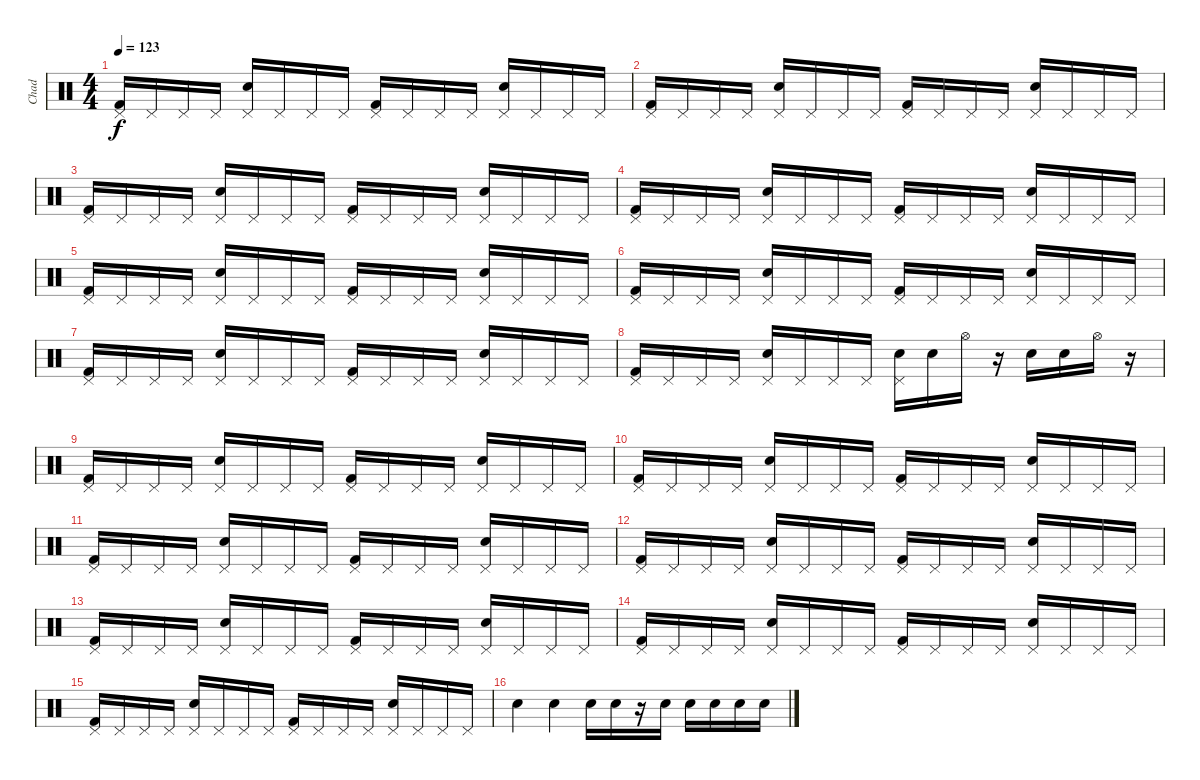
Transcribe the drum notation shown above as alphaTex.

\track ("Chad" "Chad") {instrument percussion}
\staff {score}
\articulation defaults
\ts (4 4)
\tempo 123
\clef neutral
\ks c
("Pedal Hi-Hat (hit)" "Kick (hit) 2").16{dy f} "Pedal Hi-Hat (hit)".16 "Pedal Hi-Hat (hit)".16 "Pedal Hi-Hat (hit)".16 ("Pedal Hi-Hat (hit)" "Electric Snare (hit)").16 "Pedal Hi-Hat (hit)".16 "Pedal Hi-Hat (hit)".16 "Pedal Hi-Hat (hit)".16 ("Pedal Hi-Hat (hit)" "Kick (hit) 2").16 "Pedal Hi-Hat (hit)".16 "Pedal Hi-Hat (hit)".16 "Pedal Hi-Hat (hit)".16 ("Pedal Hi-Hat (hit)" "Electric Snare (hit)").16 "Pedal Hi-Hat (hit)".16 "Pedal Hi-Hat (hit)".16 "Pedal Hi-Hat (hit)".16 |
("Pedal Hi-Hat (hit)" "Kick (hit) 2").16 "Pedal Hi-Hat (hit)".16 "Pedal Hi-Hat (hit)".16 "Pedal Hi-Hat (hit)".16 ("Pedal Hi-Hat (hit)" "Electric Snare (hit)").16 "Pedal Hi-Hat (hit)".16 "Pedal Hi-Hat (hit)".16 "Pedal Hi-Hat (hit)".16 ("Pedal Hi-Hat (hit)" "Kick (hit) 2").16 "Pedal Hi-Hat (hit)".16 "Pedal Hi-Hat (hit)".16 "Pedal Hi-Hat (hit)".16 ("Pedal Hi-Hat (hit)" "Electric Snare (hit)").16 "Pedal Hi-Hat (hit)".16 "Pedal Hi-Hat (hit)".16 "Pedal Hi-Hat (hit)".16 |
("Pedal Hi-Hat (hit)" "Kick (hit) 2").16 "Pedal Hi-Hat (hit)".16 "Pedal Hi-Hat (hit)".16 "Pedal Hi-Hat (hit)".16 ("Pedal Hi-Hat (hit)" "Electric Snare (hit)").16 "Pedal Hi-Hat (hit)".16 "Pedal Hi-Hat (hit)".16 "Pedal Hi-Hat (hit)".16 ("Pedal Hi-Hat (hit)" "Kick (hit) 2").16 "Pedal Hi-Hat (hit)".16 "Pedal Hi-Hat (hit)".16 "Pedal Hi-Hat (hit)".16 ("Pedal Hi-Hat (hit)" "Electric Snare (hit)").16 "Pedal Hi-Hat (hit)".16 "Pedal Hi-Hat (hit)".16 "Pedal Hi-Hat (hit)".16 |
("Pedal Hi-Hat (hit)" "Kick (hit) 2").16 "Pedal Hi-Hat (hit)".16 "Pedal Hi-Hat (hit)".16 "Pedal Hi-Hat (hit)".16 ("Pedal Hi-Hat (hit)" "Electric Snare (hit)").16 "Pedal Hi-Hat (hit)".16 "Pedal Hi-Hat (hit)".16 "Pedal Hi-Hat (hit)".16 ("Pedal Hi-Hat (hit)" "Kick (hit) 2").16 "Pedal Hi-Hat (hit)".16 "Pedal Hi-Hat (hit)".16 "Pedal Hi-Hat (hit)".16 ("Pedal Hi-Hat (hit)" "Electric Snare (hit)").16 "Pedal Hi-Hat (hit)".16 "Pedal Hi-Hat (hit)".16 "Pedal Hi-Hat (hit)".16 |
("Pedal Hi-Hat (hit)" "Kick (hit) 2").16 "Pedal Hi-Hat (hit)".16 "Pedal Hi-Hat (hit)".16 "Pedal Hi-Hat (hit)".16 ("Pedal Hi-Hat (hit)" "Electric Snare (hit)").16 "Pedal Hi-Hat (hit)".16 "Pedal Hi-Hat (hit)".16 "Pedal Hi-Hat (hit)".16 ("Pedal Hi-Hat (hit)" "Kick (hit) 2").16 "Pedal Hi-Hat (hit)".16 "Pedal Hi-Hat (hit)".16 "Pedal Hi-Hat (hit)".16 ("Pedal Hi-Hat (hit)" "Electric Snare (hit)").16 "Pedal Hi-Hat (hit)".16 "Pedal Hi-Hat (hit)".16 "Pedal Hi-Hat (hit)".16 |
("Pedal Hi-Hat (hit)" "Kick (hit) 2").16 "Pedal Hi-Hat (hit)".16 "Pedal Hi-Hat (hit)".16 "Pedal Hi-Hat (hit)".16 ("Pedal Hi-Hat (hit)" "Electric Snare (hit)").16 "Pedal Hi-Hat (hit)".16 "Pedal Hi-Hat (hit)".16 "Pedal Hi-Hat (hit)".16 ("Pedal Hi-Hat (hit)" "Kick (hit) 2").16 "Pedal Hi-Hat (hit)".16 "Pedal Hi-Hat (hit)".16 "Pedal Hi-Hat (hit)".16 ("Pedal Hi-Hat (hit)" "Electric Snare (hit)").16 "Pedal Hi-Hat (hit)".16 "Pedal Hi-Hat (hit)".16 "Pedal Hi-Hat (hit)".16 |
("Pedal Hi-Hat (hit)" "Kick (hit) 2").16 "Pedal Hi-Hat (hit)".16 "Pedal Hi-Hat (hit)".16 "Pedal Hi-Hat (hit)".16 ("Pedal Hi-Hat (hit)" "Electric Snare (hit)").16 "Pedal Hi-Hat (hit)".16 "Pedal Hi-Hat (hit)".16 "Pedal Hi-Hat (hit)".16 ("Pedal Hi-Hat (hit)" "Kick (hit) 2").16 "Pedal Hi-Hat (hit)".16 "Pedal Hi-Hat (hit)".16 "Pedal Hi-Hat (hit)".16 ("Pedal Hi-Hat (hit)" "Electric Snare (hit)").16 "Pedal Hi-Hat (hit)".16 "Pedal Hi-Hat (hit)".16 "Pedal Hi-Hat (hit)".16 |
("Pedal Hi-Hat (hit)" "Kick (hit) 2").16 "Pedal Hi-Hat (hit)".16 "Pedal Hi-Hat (hit)".16 "Pedal Hi-Hat (hit)".16 ("Pedal Hi-Hat (hit)" "Electric Snare (hit)").16 "Pedal Hi-Hat (hit)".16 "Pedal Hi-Hat (hit)".16 "Pedal Hi-Hat (hit)".16 ("Pedal Hi-Hat (hit)" "Electric Snare (hit)").16 "Electric Snare (hit)".16 "Hi-Hat (open)".16 r.16 "Electric Snare (hit)".16 "Electric Snare (hit)".16 "Hi-Hat (open)".16 r.16 |
("Pedal Hi-Hat (hit)" "Kick (hit) 2").16 "Pedal Hi-Hat (hit)".16 "Pedal Hi-Hat (hit)".16 "Pedal Hi-Hat (hit)".16 ("Pedal Hi-Hat (hit)" "Electric Snare (hit)").16 "Pedal Hi-Hat (hit)".16 "Pedal Hi-Hat (hit)".16 "Pedal Hi-Hat (hit)".16 ("Pedal Hi-Hat (hit)" "Kick (hit) 2").16 "Pedal Hi-Hat (hit)".16 "Pedal Hi-Hat (hit)".16 "Pedal Hi-Hat (hit)".16 ("Pedal Hi-Hat (hit)" "Electric Snare (hit)").16 "Pedal Hi-Hat (hit)".16 "Pedal Hi-Hat (hit)".16 "Pedal Hi-Hat (hit)".16 |
("Pedal Hi-Hat (hit)" "Kick (hit) 2").16 "Pedal Hi-Hat (hit)".16 "Pedal Hi-Hat (hit)".16 "Pedal Hi-Hat (hit)".16 ("Pedal Hi-Hat (hit)" "Electric Snare (hit)").16 "Pedal Hi-Hat (hit)".16 "Pedal Hi-Hat (hit)".16 "Pedal Hi-Hat (hit)".16 ("Pedal Hi-Hat (hit)" "Kick (hit) 2").16 "Pedal Hi-Hat (hit)".16 "Pedal Hi-Hat (hit)".16 "Pedal Hi-Hat (hit)".16 ("Pedal Hi-Hat (hit)" "Electric Snare (hit)").16 "Pedal Hi-Hat (hit)".16 "Pedal Hi-Hat (hit)".16 "Pedal Hi-Hat (hit)".16 |
("Pedal Hi-Hat (hit)" "Kick (hit) 2").16 "Pedal Hi-Hat (hit)".16 "Pedal Hi-Hat (hit)".16 "Pedal Hi-Hat (hit)".16 ("Pedal Hi-Hat (hit)" "Electric Snare (hit)").16 "Pedal Hi-Hat (hit)".16 "Pedal Hi-Hat (hit)".16 "Pedal Hi-Hat (hit)".16 ("Pedal Hi-Hat (hit)" "Kick (hit) 2").16 "Pedal Hi-Hat (hit)".16 "Pedal Hi-Hat (hit)".16 "Pedal Hi-Hat (hit)".16 ("Pedal Hi-Hat (hit)" "Electric Snare (hit)").16 "Pedal Hi-Hat (hit)".16 "Pedal Hi-Hat (hit)".16 "Pedal Hi-Hat (hit)".16 |
("Pedal Hi-Hat (hit)" "Kick (hit) 2").16 "Pedal Hi-Hat (hit)".16 "Pedal Hi-Hat (hit)".16 "Pedal Hi-Hat (hit)".16 ("Pedal Hi-Hat (hit)" "Electric Snare (hit)").16 "Pedal Hi-Hat (hit)".16 "Pedal Hi-Hat (hit)".16 "Pedal Hi-Hat (hit)".16 ("Pedal Hi-Hat (hit)" "Kick (hit) 2").16 "Pedal Hi-Hat (hit)".16 "Pedal Hi-Hat (hit)".16 "Pedal Hi-Hat (hit)".16 ("Pedal Hi-Hat (hit)" "Electric Snare (hit)").16 "Pedal Hi-Hat (hit)".16 "Pedal Hi-Hat (hit)".16 "Pedal Hi-Hat (hit)".16 |
("Pedal Hi-Hat (hit)" "Kick (hit) 2").16 "Pedal Hi-Hat (hit)".16 "Pedal Hi-Hat (hit)".16 "Pedal Hi-Hat (hit)".16 ("Pedal Hi-Hat (hit)" "Electric Snare (hit)").16 "Pedal Hi-Hat (hit)".16 "Pedal Hi-Hat (hit)".16 "Pedal Hi-Hat (hit)".16 ("Pedal Hi-Hat (hit)" "Kick (hit) 2").16 "Pedal Hi-Hat (hit)".16 "Pedal Hi-Hat (hit)".16 "Pedal Hi-Hat (hit)".16 ("Pedal Hi-Hat (hit)" "Electric Snare (hit)").16 "Pedal Hi-Hat (hit)".16 "Pedal Hi-Hat (hit)".16 "Pedal Hi-Hat (hit)".16 |
("Pedal Hi-Hat (hit)" "Kick (hit) 2").16 "Pedal Hi-Hat (hit)".16 "Pedal Hi-Hat (hit)".16 "Pedal Hi-Hat (hit)".16 ("Pedal Hi-Hat (hit)" "Electric Snare (hit)").16 "Pedal Hi-Hat (hit)".16 "Pedal Hi-Hat (hit)".16 "Pedal Hi-Hat (hit)".16 ("Pedal Hi-Hat (hit)" "Kick (hit) 2").16 "Pedal Hi-Hat (hit)".16 "Pedal Hi-Hat (hit)".16 "Pedal Hi-Hat (hit)".16 ("Pedal Hi-Hat (hit)" "Electric Snare (hit)").16 "Pedal Hi-Hat (hit)".16 "Pedal Hi-Hat (hit)".16 "Pedal Hi-Hat (hit)".16 |
("Pedal Hi-Hat (hit)" "Kick (hit) 2").16 "Pedal Hi-Hat (hit)".16 "Pedal Hi-Hat (hit)".16 "Pedal Hi-Hat (hit)".16 ("Pedal Hi-Hat (hit)" "Electric Snare (hit)").16 "Pedal Hi-Hat (hit)".16 "Pedal Hi-Hat (hit)".16 "Pedal Hi-Hat (hit)".16 ("Pedal Hi-Hat (hit)" "Kick (hit) 2").16 "Pedal Hi-Hat (hit)".16 "Pedal Hi-Hat (hit)".16 "Pedal Hi-Hat (hit)".16 ("Pedal Hi-Hat (hit)" "Electric Snare (hit)").16 "Pedal Hi-Hat (hit)".16 "Pedal Hi-Hat (hit)".16 "Pedal Hi-Hat (hit)".16 |
"Electric Snare (hit)".4 "Electric Snare (hit)".4 "Electric Snare (hit)".16 "Electric Snare (hit)".16 r.16 "Electric Snare (hit)".16 "Electric Snare (hit)".16 "Electric Snare (hit)".16 "Electric Snare (hit)".16 "Electric Snare (hit)".16
